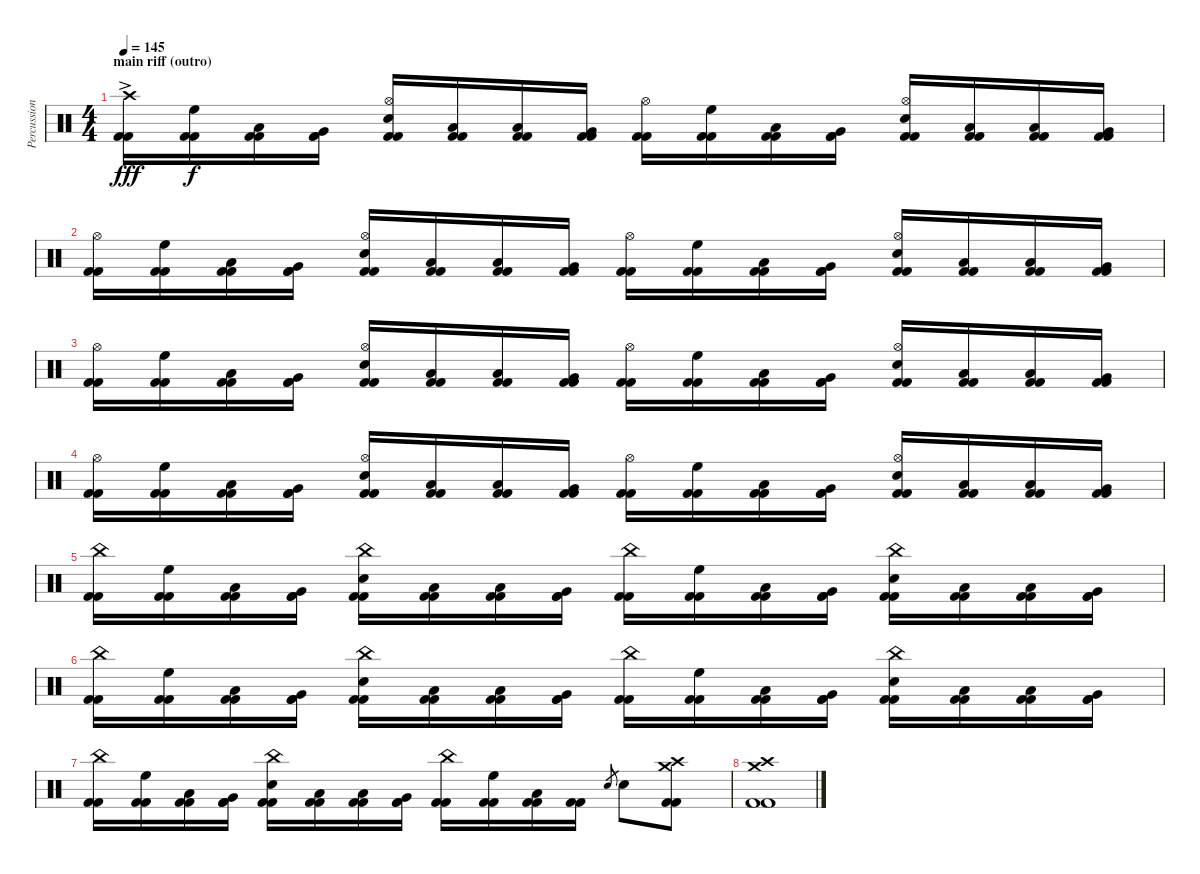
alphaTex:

\track ("Percussion" "Percussion") {instrument percussion}
\staff {score}
\articulation defaults
\ts (4 4)
\section ("" "main riff (outro)")
\tempo 145
\clef neutral
\ks c
("Crash high (hit)"{ac} "Kick (hit) 2" "Kick (hit) 2").16{dy fff} ("High Floor Tom (hit)" "Kick (hit) 2" "Kick (hit) 2").16{dy f} ("Low Floor Tom (hit)" "Kick (hit) 2" "Kick (hit) 2").16 ("Very Low Tom (hit)" "Kick (hit) 2" "Kick (hit) 2").16 ("Hi-Hat (open)" "Electric Snare (hit)" "Kick (hit) 2" "Kick (hit) 2").16 ("Low Tom (hit)" "Kick (hit) 2" "Kick (hit) 2").16 ("Low Floor Tom (hit)" "Kick (hit) 2" "Kick (hit) 2").16 ("Very Low Tom (hit)" "Kick (hit) 2" "Kick (hit) 2").16 ("Hi-Hat (open)" "Kick (hit) 2" "Kick (hit) 2").16 ("High Floor Tom (hit)" "Kick (hit) 2" "Kick (hit) 2").16 ("Low Floor Tom (hit)" "Kick (hit) 2" "Kick (hit) 2").16 ("Very Low Tom (hit)" "Kick (hit) 2" "Kick (hit) 2").16 ("Hi-Hat (open)" "Electric Snare (hit)" "Kick (hit) 2" "Kick (hit) 2").16 ("Low Tom (hit)" "Kick (hit) 2" "Kick (hit) 2").16 ("Low Floor Tom (hit)" "Kick (hit) 2" "Kick (hit) 2").16 ("Very Low Tom (hit)" "Kick (hit) 2" "Kick (hit) 2").16 |
("Hi-Hat (open)" "Kick (hit) 2" "Kick (hit) 2").16 ("High Floor Tom (hit)" "Kick (hit) 2" "Kick (hit) 2").16 ("Low Floor Tom (hit)" "Kick (hit) 2" "Kick (hit) 2").16 ("Very Low Tom (hit)" "Kick (hit) 2" "Kick (hit) 2").16 ("Hi-Hat (open)" "Electric Snare (hit)" "Kick (hit) 2" "Kick (hit) 2").16 ("Low Tom (hit)" "Kick (hit) 2" "Kick (hit) 2").16 ("Low Floor Tom (hit)" "Kick (hit) 2" "Kick (hit) 2").16 ("Very Low Tom (hit)" "Kick (hit) 2" "Kick (hit) 2").16 ("Hi-Hat (open)" "Kick (hit) 2" "Kick (hit) 2").16 ("High Floor Tom (hit)" "Kick (hit) 2" "Kick (hit) 2").16 ("Low Floor Tom (hit)" "Kick (hit) 2" "Kick (hit) 2").16 ("Very Low Tom (hit)" "Kick (hit) 2" "Kick (hit) 2").16 ("Hi-Hat (open)" "Electric Snare (hit)" "Kick (hit) 2" "Kick (hit) 2").16 ("Low Tom (hit)" "Kick (hit) 2" "Kick (hit) 2").16 ("Low Floor Tom (hit)" "Kick (hit) 2" "Kick (hit) 2").16 ("Very Low Tom (hit)" "Kick (hit) 2" "Kick (hit) 2").16 |
("Hi-Hat (open)" "Kick (hit) 2" "Kick (hit) 2").16 ("High Floor Tom (hit)" "Kick (hit) 2" "Kick (hit) 2").16 ("Low Floor Tom (hit)" "Kick (hit) 2" "Kick (hit) 2").16 ("Very Low Tom (hit)" "Kick (hit) 2" "Kick (hit) 2").16 ("Hi-Hat (open)" "Electric Snare (hit)" "Kick (hit) 2" "Kick (hit) 2").16 ("Low Tom (hit)" "Kick (hit) 2" "Kick (hit) 2").16 ("Low Floor Tom (hit)" "Kick (hit) 2" "Kick (hit) 2").16 ("Very Low Tom (hit)" "Kick (hit) 2" "Kick (hit) 2").16 ("Hi-Hat (open)" "Kick (hit) 2" "Kick (hit) 2").16 ("High Floor Tom (hit)" "Kick (hit) 2" "Kick (hit) 2").16 ("Low Floor Tom (hit)" "Kick (hit) 2" "Kick (hit) 2").16 ("Very Low Tom (hit)" "Kick (hit) 2" "Kick (hit) 2").16 ("Hi-Hat (open)" "Electric Snare (hit)" "Kick (hit) 2" "Kick (hit) 2").16 ("Low Tom (hit)" "Kick (hit) 2" "Kick (hit) 2").16 ("Low Floor Tom (hit)" "Kick (hit) 2" "Kick (hit) 2").16 ("Very Low Tom (hit)" "Kick (hit) 2" "Kick (hit) 2").16 |
("Hi-Hat (open)" "Kick (hit) 2" "Kick (hit) 2").16 ("High Floor Tom (hit)" "Kick (hit) 2" "Kick (hit) 2").16 ("Low Floor Tom (hit)" "Kick (hit) 2" "Kick (hit) 2").16 ("Very Low Tom (hit)" "Kick (hit) 2" "Kick (hit) 2").16 ("Hi-Hat (open)" "Electric Snare (hit)" "Kick (hit) 2" "Kick (hit) 2").16 ("Low Tom (hit)" "Kick (hit) 2" "Kick (hit) 2").16 ("Low Floor Tom (hit)" "Kick (hit) 2" "Kick (hit) 2").16 ("Very Low Tom (hit)" "Kick (hit) 2" "Kick (hit) 2").16 ("Hi-Hat (open)" "Kick (hit) 2" "Kick (hit) 2").16 ("High Floor Tom (hit)" "Kick (hit) 2" "Kick (hit) 2").16 ("Low Floor Tom (hit)" "Kick (hit) 2" "Kick (hit) 2").16 ("Very Low Tom (hit)" "Kick (hit) 2" "Kick (hit) 2").16 ("Hi-Hat (open)" "Electric Snare (hit)" "Kick (hit) 2" "Kick (hit) 2").16 ("Low Tom (hit)" "Kick (hit) 2" "Kick (hit) 2").16 ("Low Floor Tom (hit)" "Kick (hit) 2" "Kick (hit) 2").16 ("Very Low Tom (hit)" "Kick (hit) 2" "Kick (hit) 2").16 |
("China (hit)" "Kick (hit) 2" "Kick (hit) 2").16 ("High Floor Tom (hit)" "Kick (hit) 2" "Kick (hit) 2").16 ("Low Floor Tom (hit)" "Kick (hit) 2" "Kick (hit) 2").16 ("Very Low Tom (hit)" "Kick (hit) 2" "Kick (hit) 2").16 ("China (hit)" "Electric Snare (hit)" "Kick (hit) 2" "Kick (hit) 2").16 ("Low Tom (hit)" "Kick (hit) 2" "Kick (hit) 2").16 ("Low Floor Tom (hit)" "Kick (hit) 2" "Kick (hit) 2").16 ("Very Low Tom (hit)" "Kick (hit) 2" "Kick (hit) 2").16 ("China (hit)" "Kick (hit) 2" "Kick (hit) 2").16 ("High Floor Tom (hit)" "Kick (hit) 2" "Kick (hit) 2").16 ("Low Floor Tom (hit)" "Kick (hit) 2" "Kick (hit) 2").16 ("Very Low Tom (hit)" "Kick (hit) 2" "Kick (hit) 2").16 ("China (hit)" "Electric Snare (hit)" "Kick (hit) 2" "Kick (hit) 2").16 ("Low Tom (hit)" "Kick (hit) 2" "Kick (hit) 2").16 ("Low Floor Tom (hit)" "Kick (hit) 2" "Kick (hit) 2").16 ("Very Low Tom (hit)" "Kick (hit) 2" "Kick (hit) 2").16 |
("China (hit)" "Kick (hit) 2" "Kick (hit) 2").16 ("High Floor Tom (hit)" "Kick (hit) 2" "Kick (hit) 2").16 ("Low Floor Tom (hit)" "Kick (hit) 2" "Kick (hit) 2").16 ("Very Low Tom (hit)" "Kick (hit) 2" "Kick (hit) 2").16 ("China (hit)" "Electric Snare (hit)" "Kick (hit) 2" "Kick (hit) 2").16 ("Low Tom (hit)" "Kick (hit) 2" "Kick (hit) 2").16 ("Low Floor Tom (hit)" "Kick (hit) 2" "Kick (hit) 2").16 ("Very Low Tom (hit)" "Kick (hit) 2" "Kick (hit) 2").16 ("China (hit)" "Kick (hit) 2" "Kick (hit) 2").16 ("High Floor Tom (hit)" "Kick (hit) 2" "Kick (hit) 2").16 ("Low Floor Tom (hit)" "Kick (hit) 2" "Kick (hit) 2").16 ("Very Low Tom (hit)" "Kick (hit) 2" "Kick (hit) 2").16 ("China (hit)" "Electric Snare (hit)" "Kick (hit) 2" "Kick (hit) 2").16 ("Low Tom (hit)" "Kick (hit) 2" "Kick (hit) 2").16 ("Low Floor Tom (hit)" "Kick (hit) 2" "Kick (hit) 2").16 ("Very Low Tom (hit)" "Kick (hit) 2" "Kick (hit) 2").16 |
("China (hit)" "Kick (hit) 2" "Kick (hit) 2").16 ("High Floor Tom (hit)" "Kick (hit) 2" "Kick (hit) 2").16 ("Low Floor Tom (hit)" "Kick (hit) 2" "Kick (hit) 2").16 ("Very Low Tom (hit)" "Kick (hit) 2" "Kick (hit) 2").16 ("China (hit)" "Electric Snare (hit)" "Kick (hit) 2" "Kick (hit) 2").16 ("Low Tom (hit)" "Kick (hit) 2" "Kick (hit) 2").16 ("Low Floor Tom (hit)" "Kick (hit) 2" "Kick (hit) 2").16 ("Very Low Tom (hit)" "Kick (hit) 2" "Kick (hit) 2").16 ("China (hit)" "Kick (hit) 2" "Kick (hit) 2").16 ("High Floor Tom (hit)" "Kick (hit) 2" "Kick (hit) 2").16 ("Low Floor Tom (hit)" "Kick (hit) 2" "Kick (hit) 2").16 ("Kick (hit) 2" "Kick (hit) 2").16 "Electric Snare (hit)".8{gr} "Electric Snare (hit)".8 ("Crash medium (hit)" "Crash high (hit)" "Kick (hit) 2" "Kick (hit) 2").8 |
("Crash medium (hit)" "Crash high (hit)" "Kick (hit) 2" "Kick (hit) 2").1
